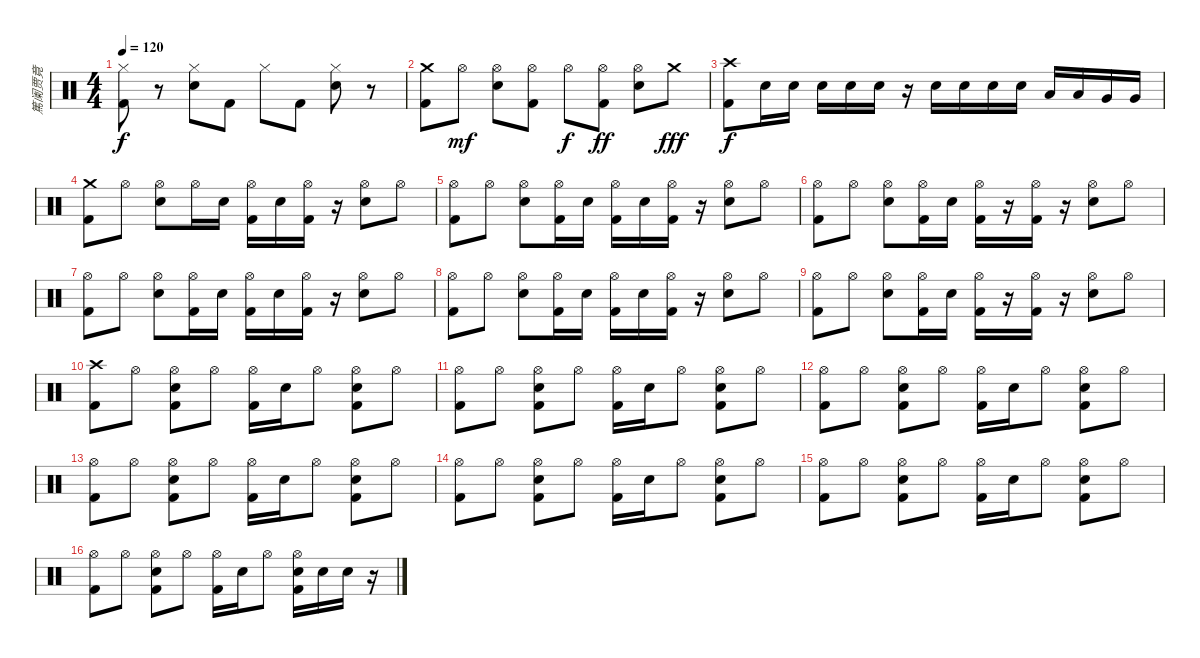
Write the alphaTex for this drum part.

\track ("篤阑贾竟" "篤阑贾竟") {instrument percussion}
\staff {score}
\articulation defaults
\ts (4 4)
\tempo 120
\clef neutral
\ks c
("Hi-Hat (closed)" "Kick (hit) 2").8{dy f} r.8 ("Hi-Hat (closed)" "Electric Snare (hit)").8 "Kick (hit) 2".8 "Hi-Hat (closed)".8 "Kick (hit) 2".8 ("Hi-Hat (closed)" "Electric Snare (hit)").8 r.8 |
("Crash medium (hit)" "Kick (hit) 2").8 "Hi-Hat (open)".8{dy mf} ("Hi-Hat (open)" "Electric Snare (hit)").8 ("Hi-Hat (open)" "Kick (hit) 2").8 "Hi-Hat (open)".8{dy f} ("Hi-Hat (open)" "Kick (hit) 2").8{dy ff} ("Hi-Hat (open)" "Electric Snare (hit)").8 "Crash medium (hit)".8{dy fff} |
("Crash high (hit)" "Kick (hit) 2").8{dy f} "Electric Snare (hit)".16 "Electric Snare (hit)".16 "Electric Snare (hit)".16 "Electric Snare (hit)".16 "Electric Snare (hit)".16 r.16 "Electric Snare (hit)".16 "Electric Snare (hit)".16 "Electric Snare (hit)".16 "Electric Snare (hit)".16 "Low Tom (hit)".16 "Low Tom (hit)".16 "Very Low Tom (hit)".16 "Very Low Tom (hit)".16 |
("Crash medium (hit)" "Kick (hit) 2").8 "Hi-Hat (open)".8 ("Hi-Hat (open)" "Electric Snare (hit)").8 "Hi-Hat (open)".16 "Electric Snare (hit)".16 ("Hi-Hat (open)" "Kick (hit) 2").16 "Electric Snare (hit)".16 ("Hi-Hat (open)" "Kick (hit) 2").16 r.16 ("Hi-Hat (open)" "Electric Snare (hit)").8 "Hi-Hat (open)".8 |
("Hi-Hat (open)" "Kick (hit) 2").8 "Hi-Hat (open)".8 ("Hi-Hat (open)" "Electric Snare (hit)").8 ("Hi-Hat (open)" "Kick (hit) 2").16 "Electric Snare (hit)".16 ("Hi-Hat (open)" "Kick (hit) 2").16 "Electric Snare (hit)".16 ("Hi-Hat (open)" "Kick (hit) 2").16 r.16 ("Hi-Hat (open)" "Electric Snare (hit)").8 "Hi-Hat (open)".8 |
("Hi-Hat (open)" "Kick (hit) 2").8 "Hi-Hat (open)".8 ("Hi-Hat (open)" "Electric Snare (hit)").8 ("Hi-Hat (open)" "Kick (hit) 2").16 "Electric Snare (hit)".16 ("Hi-Hat (open)" "Kick (hit) 2").16 r.16 ("Hi-Hat (open)" "Kick (hit) 2").16 r.16 ("Hi-Hat (open)" "Electric Snare (hit)").8 "Hi-Hat (open)".8 |
("Hi-Hat (open)" "Kick (hit) 2").8 "Hi-Hat (open)".8 ("Hi-Hat (open)" "Electric Snare (hit)").8 ("Hi-Hat (open)" "Kick (hit) 2").16 "Electric Snare (hit)".16 ("Hi-Hat (open)" "Kick (hit) 2").16 "Electric Snare (hit)".16 ("Hi-Hat (open)" "Kick (hit) 2").16 r.16 ("Hi-Hat (open)" "Electric Snare (hit)").8 "Hi-Hat (open)".8 |
("Hi-Hat (open)" "Kick (hit) 2").8 "Hi-Hat (open)".8 ("Hi-Hat (open)" "Electric Snare (hit)").8 ("Hi-Hat (open)" "Kick (hit) 2").16 "Electric Snare (hit)".16 ("Hi-Hat (open)" "Kick (hit) 2").16 "Electric Snare (hit)".16 ("Hi-Hat (open)" "Kick (hit) 2").16 r.16 ("Hi-Hat (open)" "Electric Snare (hit)").8 "Hi-Hat (open)".8 |
("Hi-Hat (open)" "Kick (hit) 2").8 "Hi-Hat (open)".8 ("Hi-Hat (open)" "Electric Snare (hit)").8 ("Hi-Hat (open)" "Kick (hit) 2").16 "Electric Snare (hit)".16 ("Hi-Hat (open)" "Kick (hit) 2").16 r.16 ("Hi-Hat (open)" "Kick (hit) 2").16 r.16 ("Hi-Hat (open)" "Electric Snare (hit)").8 "Hi-Hat (open)".8 |
("Crash high (hit)" "Kick (hit) 2").8 "Hi-Hat (open)".8 ("Hi-Hat (open)" "Electric Snare (hit)" "Kick (hit) 2").8 "Hi-Hat (open)".8 ("Hi-Hat (open)" "Kick (hit) 2").16 "Electric Snare (hit)".16 "Hi-Hat (open)".8 ("Hi-Hat (open)" "Electric Snare (hit)" "Kick (hit) 2").8 "Hi-Hat (open)".8 |
("Hi-Hat (open)" "Kick (hit) 2").8 "Hi-Hat (open)".8 ("Hi-Hat (open)" "Electric Snare (hit)" "Kick (hit) 2").8 "Hi-Hat (open)".8 ("Hi-Hat (open)" "Kick (hit) 2").16 "Electric Snare (hit)".16 "Hi-Hat (open)".8 ("Hi-Hat (open)" "Electric Snare (hit)" "Kick (hit) 2").8 "Hi-Hat (open)".8 |
("Hi-Hat (open)" "Kick (hit) 2").8 "Hi-Hat (open)".8 ("Hi-Hat (open)" "Electric Snare (hit)" "Kick (hit) 2").8 "Hi-Hat (open)".8 ("Hi-Hat (open)" "Kick (hit) 2").16 "Electric Snare (hit)".16 "Hi-Hat (open)".8 ("Hi-Hat (open)" "Electric Snare (hit)" "Kick (hit) 2").8 "Hi-Hat (open)".8 |
("Hi-Hat (open)" "Kick (hit) 2").8 "Hi-Hat (open)".8 ("Hi-Hat (open)" "Electric Snare (hit)" "Kick (hit) 2").8 "Hi-Hat (open)".8 ("Hi-Hat (open)" "Kick (hit) 2").16 "Electric Snare (hit)".16 "Hi-Hat (open)".8 ("Hi-Hat (open)" "Electric Snare (hit)" "Kick (hit) 2").8 "Hi-Hat (open)".8 |
("Hi-Hat (open)" "Kick (hit) 2").8 "Hi-Hat (open)".8 ("Hi-Hat (open)" "Electric Snare (hit)" "Kick (hit) 2").8 "Hi-Hat (open)".8 ("Hi-Hat (open)" "Kick (hit) 2").16 "Electric Snare (hit)".16 "Hi-Hat (open)".8 ("Hi-Hat (open)" "Electric Snare (hit)" "Kick (hit) 2").8 "Hi-Hat (open)".8 |
("Hi-Hat (open)" "Kick (hit) 2").8 "Hi-Hat (open)".8 ("Hi-Hat (open)" "Electric Snare (hit)" "Kick (hit) 2").8 "Hi-Hat (open)".8 ("Hi-Hat (open)" "Kick (hit) 2").16 "Electric Snare (hit)".16 "Hi-Hat (open)".8 ("Hi-Hat (open)" "Electric Snare (hit)" "Kick (hit) 2").8 "Hi-Hat (open)".8 |
("Hi-Hat (open)" "Kick (hit) 2").8 "Hi-Hat (open)".8 ("Hi-Hat (open)" "Electric Snare (hit)" "Kick (hit) 2").8 "Hi-Hat (open)".8 ("Hi-Hat (open)" "Kick (hit) 2").16 "Electric Snare (hit)".16 "Hi-Hat (open)".8 ("Hi-Hat (open)" "Electric Snare (hit)" "Kick (hit) 2").16 "Electric Snare (hit)".16 "Electric Snare (hit)".16 r.16
